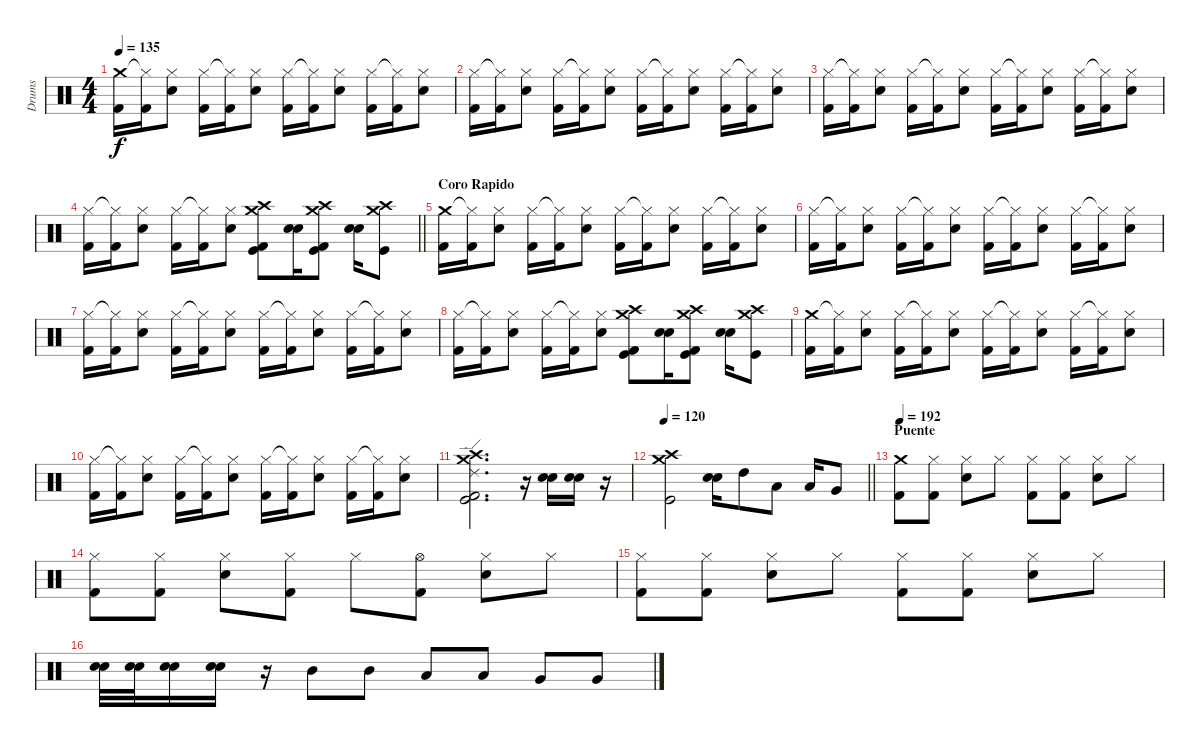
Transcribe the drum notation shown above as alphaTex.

\track ("Drums" "Drums") {instrument percussion}
\staff {score}
\articulation defaults
\ts (4 4)
\tempo 135
\clef neutral
\ks c
("Crash medium (hit)" "Kick (hit) 2").16{dy f} ("Hi-Hat (closed)"{t} "Kick (hit) 2").16 ("Hi-Hat (closed)" "Snare (hit) 2").8 ("Hi-Hat (closed)" "Kick (hit) 2").16 ("Hi-Hat (closed)"{t} "Kick (hit) 2").16 ("Hi-Hat (closed)" "Snare (hit) 2").8 ("Hi-Hat (closed)" "Kick (hit) 2").16 ("Hi-Hat (closed)"{t} "Kick (hit) 2").16 ("Hi-Hat (closed)" "Snare (hit) 2").8 ("Hi-Hat (closed)" "Kick (hit) 2").16 ("Hi-Hat (closed)"{t} "Kick (hit) 2").16 ("Hi-Hat (closed)" "Snare (hit) 2").8 |
("Hi-Hat (closed)" "Kick (hit) 2").16 ("Hi-Hat (closed)"{t} "Kick (hit) 2").16 ("Hi-Hat (closed)" "Snare (hit) 2").8 ("Hi-Hat (closed)" "Kick (hit) 2").16 ("Hi-Hat (closed)"{t} "Kick (hit) 2").16 ("Hi-Hat (closed)" "Snare (hit) 2").8 ("Hi-Hat (closed)" "Kick (hit) 2").16 ("Hi-Hat (closed)"{t} "Kick (hit) 2").16 ("Hi-Hat (closed)" "Snare (hit) 2").8 ("Hi-Hat (closed)" "Kick (hit) 2").16 ("Hi-Hat (closed)"{t} "Kick (hit) 2").16 ("Hi-Hat (closed)" "Snare (hit) 2").8 |
("Hi-Hat (closed)" "Kick (hit) 2").16 ("Hi-Hat (closed)"{t} "Kick (hit) 2").16 ("Hi-Hat (closed)" "Snare (hit) 2").8 ("Hi-Hat (closed)" "Kick (hit) 2").16 ("Hi-Hat (closed)"{t} "Kick (hit) 2").16 ("Hi-Hat (closed)" "Snare (hit) 2").8 ("Hi-Hat (closed)" "Kick (hit) 2").16 ("Hi-Hat (closed)"{t} "Kick (hit) 2").16 ("Hi-Hat (closed)" "Snare (hit) 2").8 ("Hi-Hat (closed)" "Kick (hit) 2").16 ("Hi-Hat (closed)"{t} "Kick (hit) 2").16 ("Hi-Hat (closed)" "Snare (hit) 2").8 |
\barLineRight lightlight
("Hi-Hat (closed)" "Kick (hit) 2").16 ("Hi-Hat (closed)"{t} "Kick (hit) 2").16 ("Hi-Hat (closed)" "Snare (hit) 2").8 ("Hi-Hat (closed)" "Kick (hit) 2").16 ("Hi-Hat (closed)"{t} "Kick (hit) 2").16 ("Hi-Hat (closed)" "Snare (hit) 2").8 ("Crash medium (hit)" "Crash high (hit)" "Kick (hit) 2" "Kick (hit)").8 ("Electric Snare (hit)" "Snare (hit) 2").16 ("Crash medium (hit)" "Crash high (hit)" "Kick (hit) 2" "Kick (hit)").8 ("Electric Snare (hit)" "Snare (hit) 2").16 ("Crash medium (hit)" "Crash high (hit)" "Kick (hit)").8 |
\section ("" "Coro Rapido")
("Crash medium (hit)" "Kick (hit) 2").16 ("Hi-Hat (closed)"{t} "Kick (hit) 2").16 ("Hi-Hat (closed)" "Snare (hit) 2").8 ("Hi-Hat (closed)" "Kick (hit) 2").16 ("Hi-Hat (closed)"{t} "Kick (hit) 2").16 ("Hi-Hat (closed)" "Snare (hit) 2").8 ("Hi-Hat (closed)" "Kick (hit) 2").16 ("Hi-Hat (closed)"{t} "Kick (hit) 2").16 ("Hi-Hat (closed)" "Snare (hit) 2").8 ("Hi-Hat (closed)" "Kick (hit) 2").16 ("Hi-Hat (closed)"{t} "Kick (hit) 2").16 ("Hi-Hat (closed)" "Snare (hit) 2").8 |
("Hi-Hat (closed)" "Kick (hit) 2").16 ("Hi-Hat (closed)"{t} "Kick (hit) 2").16 ("Hi-Hat (closed)" "Snare (hit) 2").8 ("Hi-Hat (closed)" "Kick (hit) 2").16 ("Hi-Hat (closed)"{t} "Kick (hit) 2").16 ("Hi-Hat (closed)" "Snare (hit) 2").8 ("Hi-Hat (closed)" "Kick (hit) 2").16 ("Hi-Hat (closed)"{t} "Kick (hit) 2").16 ("Hi-Hat (closed)" "Snare (hit) 2").8 ("Hi-Hat (closed)" "Kick (hit) 2").16 ("Hi-Hat (closed)"{t} "Kick (hit) 2").16 ("Hi-Hat (closed)" "Snare (hit) 2").8 |
("Hi-Hat (closed)" "Kick (hit) 2").16 ("Hi-Hat (closed)"{t} "Kick (hit) 2").16 ("Hi-Hat (closed)" "Snare (hit) 2").8 ("Hi-Hat (closed)" "Kick (hit) 2").16 ("Hi-Hat (closed)"{t} "Kick (hit) 2").16 ("Hi-Hat (closed)" "Snare (hit) 2").8 ("Hi-Hat (closed)" "Kick (hit) 2").16 ("Hi-Hat (closed)"{t} "Kick (hit) 2").16 ("Hi-Hat (closed)" "Snare (hit) 2").8 ("Hi-Hat (closed)" "Kick (hit) 2").16 ("Hi-Hat (closed)"{t} "Kick (hit) 2").16 ("Hi-Hat (closed)" "Snare (hit) 2").8 |
("Hi-Hat (closed)" "Kick (hit) 2").16 ("Hi-Hat (closed)"{t} "Kick (hit) 2").16 ("Hi-Hat (closed)" "Snare (hit) 2").8 ("Hi-Hat (closed)" "Kick (hit) 2").16 ("Hi-Hat (closed)"{t} "Kick (hit) 2").16 ("Hi-Hat (closed)" "Snare (hit) 2").8 ("Crash medium (hit)" "Crash high (hit)" "Kick (hit) 2" "Kick (hit)").8 ("Electric Snare (hit)" "Snare (hit) 2").16 ("Crash medium (hit)" "Crash high (hit)" "Kick (hit) 2" "Kick (hit)").8 ("Electric Snare (hit)" "Snare (hit) 2").16 ("Crash medium (hit)" "Crash high (hit)" "Kick (hit)").8 |
("Crash medium (hit)" "Kick (hit) 2").16 ("Hi-Hat (closed)"{t} "Kick (hit) 2").16 ("Hi-Hat (closed)" "Snare (hit) 2").8 ("Hi-Hat (closed)" "Kick (hit) 2").16 ("Hi-Hat (closed)"{t} "Kick (hit) 2").16 ("Hi-Hat (closed)" "Snare (hit) 2").8 ("Hi-Hat (closed)" "Kick (hit) 2").16 ("Hi-Hat (closed)"{t} "Kick (hit) 2").16 ("Hi-Hat (closed)" "Snare (hit) 2").8 ("Hi-Hat (closed)" "Kick (hit) 2").16 ("Hi-Hat (closed)"{t} "Kick (hit) 2").16 ("Hi-Hat (closed)" "Snare (hit) 2").8 |
("Hi-Hat (closed)" "Kick (hit) 2").16 ("Hi-Hat (closed)"{t} "Kick (hit) 2").16 ("Hi-Hat (closed)" "Snare (hit) 2").8 ("Hi-Hat (closed)" "Kick (hit) 2").16 ("Hi-Hat (closed)"{t} "Kick (hit) 2").16 ("Hi-Hat (closed)" "Snare (hit) 2").8 ("Hi-Hat (closed)" "Kick (hit) 2").16 ("Hi-Hat (closed)"{t} "Kick (hit) 2").16 ("Hi-Hat (closed)" "Snare (hit) 2").8 ("Hi-Hat (closed)" "Kick (hit) 2").16 ("Hi-Hat (closed)"{t} "Kick (hit) 2").16 ("Hi-Hat (closed)" "Snare (hit) 2").8 |
("Crash medium (hit)" "Ride (edge) 2" "Crash high (hit)" "Kick (hit)" "Kick (hit) 2").2{d} r.16 ("Electric Snare (hit)" "Snare (hit) 2").16 ("Electric Snare (hit)" "Snare (hit) 2").16 r.16 |
\tempo 120
\barLineRight lightlight
("Crash medium (hit)" "Crash high (hit)" "Kick (hit)").2 ("Electric Snare (hit)" "Snare (hit) 2").16 "High Tom (hit)".8 "Low Tom (hit)".8 "Low Tom (hit)".16 "Very Low Tom (hit)".8 |
\section ("" "Puente")
\tempo 192
("Crash medium (hit)" "Kick (hit) 2").8 ("Hi-Hat (closed)" "Kick (hit) 2").8 ("Hi-Hat (closed)" "Snare (hit) 2").8 "Hi-Hat (closed)".8 ("Hi-Hat (closed)" "Kick (hit) 2").8 ("Hi-Hat (closed)" "Kick (hit) 2").8 ("Hi-Hat (closed)" "Snare (hit) 2").8 "Hi-Hat (closed)".8 |
("Hi-Hat (closed)" "Kick (hit) 2").8 ("Hi-Hat (closed)" "Kick (hit) 2").8 ("Hi-Hat (closed)" "Snare (hit) 2").8 ("Hi-Hat (closed)" "Kick (hit) 2").8 "Hi-Hat (closed)".8 ("Hi-Hat (open)" "Kick (hit) 2").8 ("Hi-Hat (closed)" "Snare (hit) 2").8 "Hi-Hat (closed)".8 |
("Hi-Hat (closed)" "Kick (hit) 2").8 ("Hi-Hat (closed)" "Kick (hit) 2").8 ("Hi-Hat (closed)" "Snare (hit) 2").8 "Hi-Hat (closed)".8 ("Hi-Hat (closed)" "Kick (hit) 2").8 ("Hi-Hat (closed)" "Kick (hit) 2").8 ("Hi-Hat (closed)" "Snare (hit) 2").8 "Hi-Hat (closed)".8 |
("Snare (hit) 2" "Electric Snare (hit)").32 ("Snare (hit) 2" "Electric Snare (hit)").32 ("Snare (hit) 2" "Electric Snare (hit)").16 ("Snare (hit) 2" "Electric Snare (hit)").16 r.16 "Mid Tom (hit)".8 "Mid Tom (hit)".8 "Low Tom (hit)".8 "Low Tom (hit)".8 "Very Low Tom (hit)".8 "Very Low Tom (hit)".8
